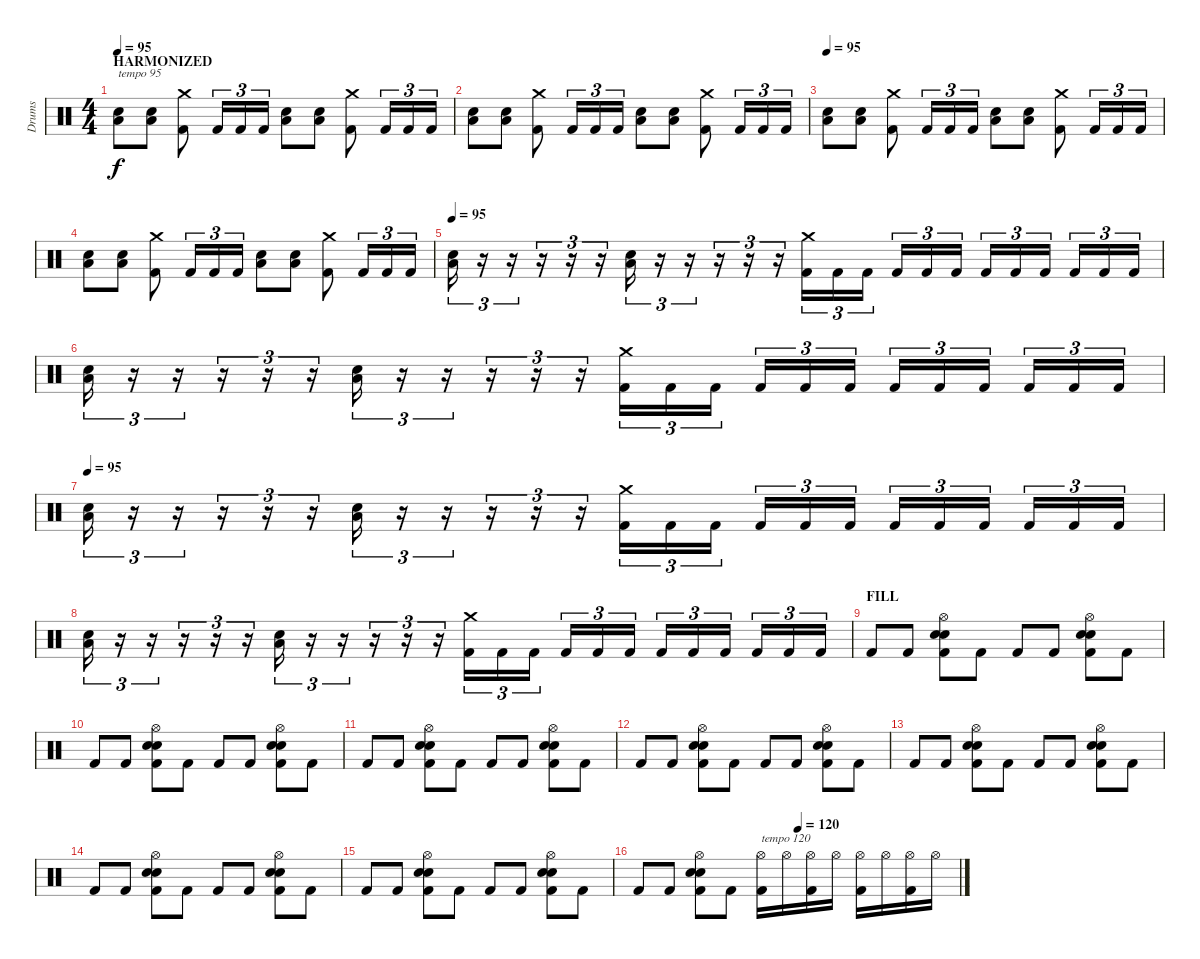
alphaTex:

\track ("Drums" "Drums") {instrument percussion}
\staff {score}
\articulation defaults
\ts (4 4)
\section ("" "HARMONIZED")
\tempo 95
\clef neutral
\ks c
("Low Tom (hit)" "Electric Snare (hit)").8{txt "tempo 95" dy f} ("Low Tom (hit)" "Electric Snare (hit)").8 ("Crash medium (hit)" "Kick (hit) 2").8 "Kick (hit) 2".16{tu (3 2)} "Kick (hit) 2".16{tu (3 2)} "Kick (hit) 2".16{tu (3 2)} ("Low Tom (hit)" "Electric Snare (hit)").8 ("Low Tom (hit)" "Electric Snare (hit)").8 ("Crash medium (hit)" "Kick (hit) 2").8 "Kick (hit) 2".16{tu (3 2)} "Kick (hit) 2".16{tu (3 2)} "Kick (hit) 2".16{tu (3 2)} |
("Low Tom (hit)" "Electric Snare (hit)").8 ("Low Tom (hit)" "Electric Snare (hit)").8 ("Crash medium (hit)" "Kick (hit) 2").8 "Kick (hit) 2".16{tu (3 2)} "Kick (hit) 2".16{tu (3 2)} "Kick (hit) 2".16{tu (3 2)} ("Low Tom (hit)" "Electric Snare (hit)").8 ("Low Tom (hit)" "Electric Snare (hit)").8 ("Crash medium (hit)" "Kick (hit) 2").8 "Kick (hit) 2".16{tu (3 2)} "Kick (hit) 2".16{tu (3 2)} "Kick (hit) 2".16{tu (3 2)} |
\tempo 95
("Low Tom (hit)" "Electric Snare (hit)").8 ("Low Tom (hit)" "Electric Snare (hit)").8 ("Crash medium (hit)" "Kick (hit) 2").8 "Kick (hit) 2".16{tu (3 2)} "Kick (hit) 2".16{tu (3 2)} "Kick (hit) 2".16{tu (3 2)} ("Low Tom (hit)" "Electric Snare (hit)").8 ("Low Tom (hit)" "Electric Snare (hit)").8 ("Crash medium (hit)" "Kick (hit) 2").8 "Kick (hit) 2".16{tu (3 2)} "Kick (hit) 2".16{tu (3 2)} "Kick (hit) 2".16{tu (3 2)} |
("Low Tom (hit)" "Electric Snare (hit)").8 ("Low Tom (hit)" "Electric Snare (hit)").8 ("Crash medium (hit)" "Kick (hit) 2").8 "Kick (hit) 2".16{tu (3 2)} "Kick (hit) 2".16{tu (3 2)} "Kick (hit) 2".16{tu (3 2)} ("Low Tom (hit)" "Electric Snare (hit)").8 ("Low Tom (hit)" "Electric Snare (hit)").8 ("Crash medium (hit)" "Kick (hit) 2").8 "Kick (hit) 2".16{tu (3 2)} "Kick (hit) 2".16{tu (3 2)} "Kick (hit) 2".16{tu (3 2)} |
\tempo 95
("Low Tom (hit)" "Electric Snare (hit)").16{tu (3 2)} r.16{tu (3 2)} r.16{tu (3 2)} r.16{tu (3 2)} r.16{tu (3 2)} r.16{tu (3 2)} ("Low Tom (hit)" "Electric Snare (hit)").16{tu (3 2)} r.16{tu (3 2)} r.16{tu (3 2)} r.16{tu (3 2)} r.16{tu (3 2)} r.16{tu (3 2)} ("Crash medium (hit)" "Kick (hit) 2").16{tu (3 2)} "Kick (hit) 2".16{tu (3 2)} "Kick (hit) 2".16{tu (3 2)} "Kick (hit) 2".16{tu (3 2)} "Kick (hit) 2".16{tu (3 2)} "Kick (hit) 2".16{tu (3 2)} "Kick (hit) 2".16{tu (3 2)} "Kick (hit) 2".16{tu (3 2)} "Kick (hit) 2".16{tu (3 2)} "Kick (hit) 2".16{tu (3 2)} "Kick (hit) 2".16{tu (3 2)} "Kick (hit) 2".16{tu (3 2)} |
("Low Tom (hit)" "Electric Snare (hit)").16{tu (3 2)} r.16{tu (3 2)} r.16{tu (3 2)} r.16{tu (3 2)} r.16{tu (3 2)} r.16{tu (3 2)} ("Low Tom (hit)" "Electric Snare (hit)").16{tu (3 2)} r.16{tu (3 2)} r.16{tu (3 2)} r.16{tu (3 2)} r.16{tu (3 2)} r.16{tu (3 2)} ("Crash medium (hit)" "Kick (hit) 2").16{tu (3 2)} "Kick (hit) 2".16{tu (3 2)} "Kick (hit) 2".16{tu (3 2)} "Kick (hit) 2".16{tu (3 2)} "Kick (hit) 2".16{tu (3 2)} "Kick (hit) 2".16{tu (3 2)} "Kick (hit) 2".16{tu (3 2)} "Kick (hit) 2".16{tu (3 2)} "Kick (hit) 2".16{tu (3 2)} "Kick (hit) 2".16{tu (3 2)} "Kick (hit) 2".16{tu (3 2)} "Kick (hit) 2".16{tu (3 2)} |
\tempo 95
("Low Tom (hit)" "Electric Snare (hit)").16{tu (3 2)} r.16{tu (3 2)} r.16{tu (3 2)} r.16{tu (3 2)} r.16{tu (3 2)} r.16{tu (3 2)} ("Low Tom (hit)" "Electric Snare (hit)").16{tu (3 2)} r.16{tu (3 2)} r.16{tu (3 2)} r.16{tu (3 2)} r.16{tu (3 2)} r.16{tu (3 2)} ("Crash medium (hit)" "Kick (hit) 2").16{tu (3 2)} "Kick (hit) 2".16{tu (3 2)} "Kick (hit) 2".16{tu (3 2)} "Kick (hit) 2".16{tu (3 2)} "Kick (hit) 2".16{tu (3 2)} "Kick (hit) 2".16{tu (3 2)} "Kick (hit) 2".16{tu (3 2)} "Kick (hit) 2".16{tu (3 2)} "Kick (hit) 2".16{tu (3 2)} "Kick (hit) 2".16{tu (3 2)} "Kick (hit) 2".16{tu (3 2)} "Kick (hit) 2".16{tu (3 2)} |
("Low Tom (hit)" "Electric Snare (hit)").16{tu (3 2)} r.16{tu (3 2)} r.16{tu (3 2)} r.16{tu (3 2)} r.16{tu (3 2)} r.16{tu (3 2)} ("Low Tom (hit)" "Electric Snare (hit)").16{tu (3 2)} r.16{tu (3 2)} r.16{tu (3 2)} r.16{tu (3 2)} r.16{tu (3 2)} r.16{tu (3 2)} ("Crash medium (hit)" "Kick (hit) 2").16{tu (3 2)} "Kick (hit) 2".16{tu (3 2)} "Kick (hit) 2".16{tu (3 2)} "Kick (hit) 2".16{tu (3 2)} "Kick (hit) 2".16{tu (3 2)} "Kick (hit) 2".16{tu (3 2)} "Kick (hit) 2".16{tu (3 2)} "Kick (hit) 2".16{tu (3 2)} "Kick (hit) 2".16{tu (3 2)} "Kick (hit) 2".16{tu (3 2)} "Kick (hit) 2".16{tu (3 2)} "Kick (hit) 2".16{tu (3 2)} |
\section ("" "FILL")
"Kick (hit) 2".8 "Kick (hit) 2".8 ("Hi-Hat (open)" "Electric Snare (hit)" "Electric Snare (hit)" "Kick (hit) 2").8 "Kick (hit) 2".8 "Kick (hit) 2".8 "Kick (hit) 2".8 ("Hi-Hat (open)" "Electric Snare (hit)" "Electric Snare (hit)" "Kick (hit) 2").8 "Kick (hit) 2".8 |
"Kick (hit) 2".8 "Kick (hit) 2".8 ("Hi-Hat (open)" "Electric Snare (hit)" "Electric Snare (hit)" "Kick (hit) 2").8 "Kick (hit) 2".8 "Kick (hit) 2".8 "Kick (hit) 2".8 ("Hi-Hat (open)" "Electric Snare (hit)" "Electric Snare (hit)" "Kick (hit) 2").8 "Kick (hit) 2".8 |
"Kick (hit) 2".8 "Kick (hit) 2".8 ("Hi-Hat (open)" "Electric Snare (hit)" "Electric Snare (hit)" "Kick (hit) 2").8 "Kick (hit) 2".8 "Kick (hit) 2".8 "Kick (hit) 2".8 ("Hi-Hat (open)" "Electric Snare (hit)" "Electric Snare (hit)" "Kick (hit) 2").8 "Kick (hit) 2".8 |
"Kick (hit) 2".8 "Kick (hit) 2".8 ("Hi-Hat (open)" "Electric Snare (hit)" "Electric Snare (hit)" "Kick (hit) 2").8 "Kick (hit) 2".8 "Kick (hit) 2".8 "Kick (hit) 2".8 ("Hi-Hat (open)" "Electric Snare (hit)" "Electric Snare (hit)" "Kick (hit) 2").8 "Kick (hit) 2".8 |
"Kick (hit) 2".8 "Kick (hit) 2".8 ("Hi-Hat (open)" "Electric Snare (hit)" "Electric Snare (hit)" "Kick (hit) 2").8 "Kick (hit) 2".8 "Kick (hit) 2".8 "Kick (hit) 2".8 ("Hi-Hat (open)" "Electric Snare (hit)" "Electric Snare (hit)" "Kick (hit) 2").8 "Kick (hit) 2".8 |
"Kick (hit) 2".8 "Kick (hit) 2".8 ("Hi-Hat (open)" "Electric Snare (hit)" "Electric Snare (hit)" "Kick (hit) 2").8 "Kick (hit) 2".8 "Kick (hit) 2".8 "Kick (hit) 2".8 ("Hi-Hat (open)" "Electric Snare (hit)" "Electric Snare (hit)" "Kick (hit) 2").8 "Kick (hit) 2".8 |
"Kick (hit) 2".8 "Kick (hit) 2".8 ("Hi-Hat (open)" "Electric Snare (hit)" "Electric Snare (hit)" "Kick (hit) 2").8 "Kick (hit) 2".8 "Kick (hit) 2".8 "Kick (hit) 2".8 ("Hi-Hat (open)" "Electric Snare (hit)" "Electric Snare (hit)" "Kick (hit) 2").8 "Kick (hit) 2".8 |
\tempo (120 0.5)
"Kick (hit) 2".8 "Kick (hit) 2".8 ("Hi-Hat (open)" "Electric Snare (hit)" "Electric Snare (hit)" "Kick (hit) 2").8 "Kick (hit) 2".8 ("Hi-Hat (open)" "Kick (hit) 2").16{txt "tempo 120"} "Hi-Hat (open)".16 ("Hi-Hat (open)" "Kick (hit) 2").16 "Hi-Hat (open)".16 ("Hi-Hat (open)" "Kick (hit) 2").16 "Hi-Hat (open)".16 ("Hi-Hat (open)" "Kick (hit) 2").16 "Hi-Hat (open)".16
